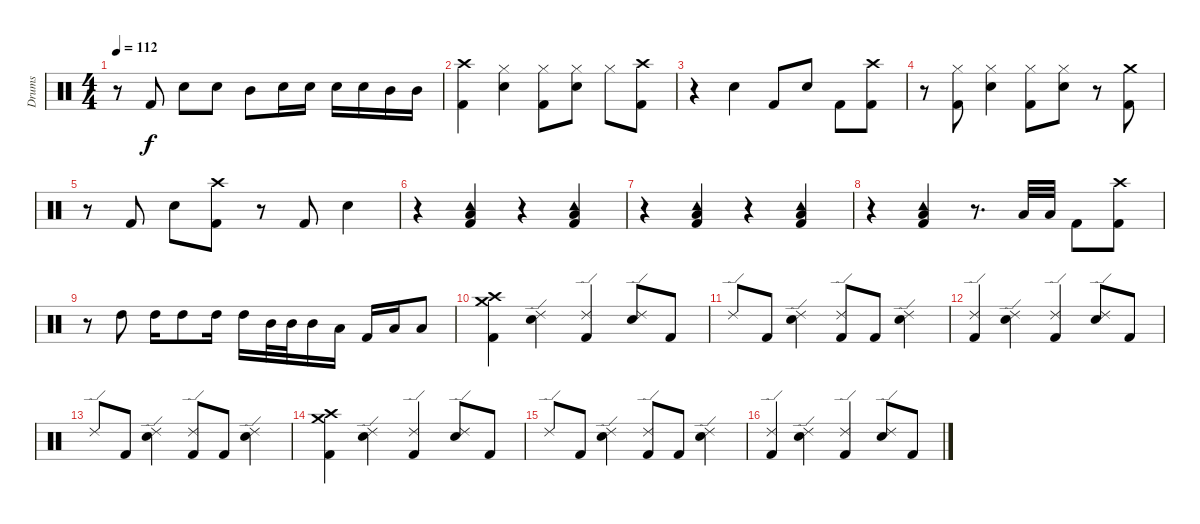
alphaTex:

\track ("Drums" "Drums") {instrument percussion}
\staff {score}
\articulation defaults
\ts (4 4)
\tempo 112
\clef neutral
\ks c
r.8{dy f} "Kick (hit) 2".8 "Electric Snare (hit)".8 "Electric Snare (hit)".8 "Mid Tom (hit)".8 "Electric Snare (hit)".16 "Electric Snare (hit)".16 "Electric Snare (hit)".16 "Electric Snare (hit)".16 "Mid Tom (hit)".16 "Mid Tom (hit)".16 |
("Crash high (hit)" "Kick (hit) 2").4 ("Hi-Hat (closed)" "Electric Snare (hit)").4 ("Hi-Hat (closed)" "Kick (hit) 2").8 ("Hi-Hat (closed)" "Electric Snare (hit)").8 "Hi-Hat (closed)".8 ("Crash high (hit)" "Kick (hit) 2").8 |
r.4 "Electric Snare (hit)".4 "Kick (hit) 2".8 "Electric Snare (hit)".8 "Kick (hit) 2".8 ("Crash high (hit)" "Kick (hit) 2").8 |
r.8 ("Hi-Hat (closed)" "Kick (hit) 2").8 ("Hi-Hat (closed)" "Electric Snare (hit)").4 ("Hi-Hat (closed)" "Kick (hit) 2").8 ("Hi-Hat (closed)" "Electric Snare (hit)").8 r.8 ("Crash medium (hit)" "Kick (hit) 2").8 |
r.8 "Kick (hit) 2".8 "Electric Snare (hit)".8 ("Crash high (hit)" "Kick (hit) 2").8 r.8 "Kick (hit) 2".8 "Electric Snare (hit)".4 |
r.4 ("Low Floor Tom (hit)" "Tambourine (hit)" "Kick (hit) 2").4 r.4 ("Low Floor Tom (hit)" "Tambourine (hit)" "Kick (hit) 2").4 |
r.4 ("Low Floor Tom (hit)" "Tambourine (hit)" "Kick (hit) 2").4 r.4 ("Low Floor Tom (hit)" "Tambourine (hit)" "Kick (hit) 2").4 |
r.4 ("Low Floor Tom (hit)" "Tambourine (hit)" "Kick (hit) 2").4 r.8{d} "Low Floor Tom (hit)".32 "Low Floor Tom (hit)".32 "Kick (hit) 2".8 ("Crash high (hit)" "Kick (hit) 2").8 |
r.8 "High Tom (hit)".8 "High Tom (hit)".16 "High Tom (hit)".8 "High Tom (hit)".16 "High Tom (hit)".16 "Mid Tom (hit)".32 "Mid Tom (hit)".32 "Mid Tom (hit)".16 "Low Tom (hit)".16 "Kick (hit) 2".16 "Low Tom (hit)".16 "Low Tom (hit)".8 |
("Crash medium (hit)" "Crash high (hit)" "Kick (hit) 2").4 ("Ride (edge) 2" "Electric Snare (hit)").4 ("Ride (edge) 2" "Kick (hit) 2").4 ("Ride (edge) 2" "Electric Snare (hit)").8 "Kick (hit) 2".8 |
"Ride (edge) 2".8 "Kick (hit) 2".8 ("Ride (edge) 2" "Electric Snare (hit)").4 ("Ride (edge) 2" "Kick (hit) 2").8 "Kick (hit) 2".8 ("Ride (edge) 2" "Electric Snare (hit)").4 |
("Ride (edge) 2" "Kick (hit) 2").4 ("Ride (edge) 2" "Electric Snare (hit)").4 ("Ride (edge) 2" "Kick (hit) 2").4 ("Ride (edge) 2" "Electric Snare (hit)").8 "Kick (hit) 2".8 |
"Ride (edge) 2".8 "Kick (hit) 2".8 ("Ride (edge) 2" "Electric Snare (hit)").4 ("Ride (edge) 2" "Kick (hit) 2").8 "Kick (hit) 2".8 ("Ride (edge) 2" "Electric Snare (hit)").4 |
("Crash medium (hit)" "Crash high (hit)" "Kick (hit) 2").4 ("Ride (edge) 2" "Electric Snare (hit)").4 ("Ride (edge) 2" "Kick (hit) 2").4 ("Ride (edge) 2" "Electric Snare (hit)").8 "Kick (hit) 2".8 |
"Ride (edge) 2".8 "Kick (hit) 2".8 ("Ride (edge) 2" "Electric Snare (hit)").4 ("Ride (edge) 2" "Kick (hit) 2").8 "Kick (hit) 2".8 ("Ride (edge) 2" "Electric Snare (hit)").4 |
("Ride (edge) 2" "Kick (hit) 2").4 ("Ride (edge) 2" "Electric Snare (hit)").4 ("Ride (edge) 2" "Kick (hit) 2").4 ("Ride (edge) 2" "Electric Snare (hit)").8 "Kick (hit) 2".8
